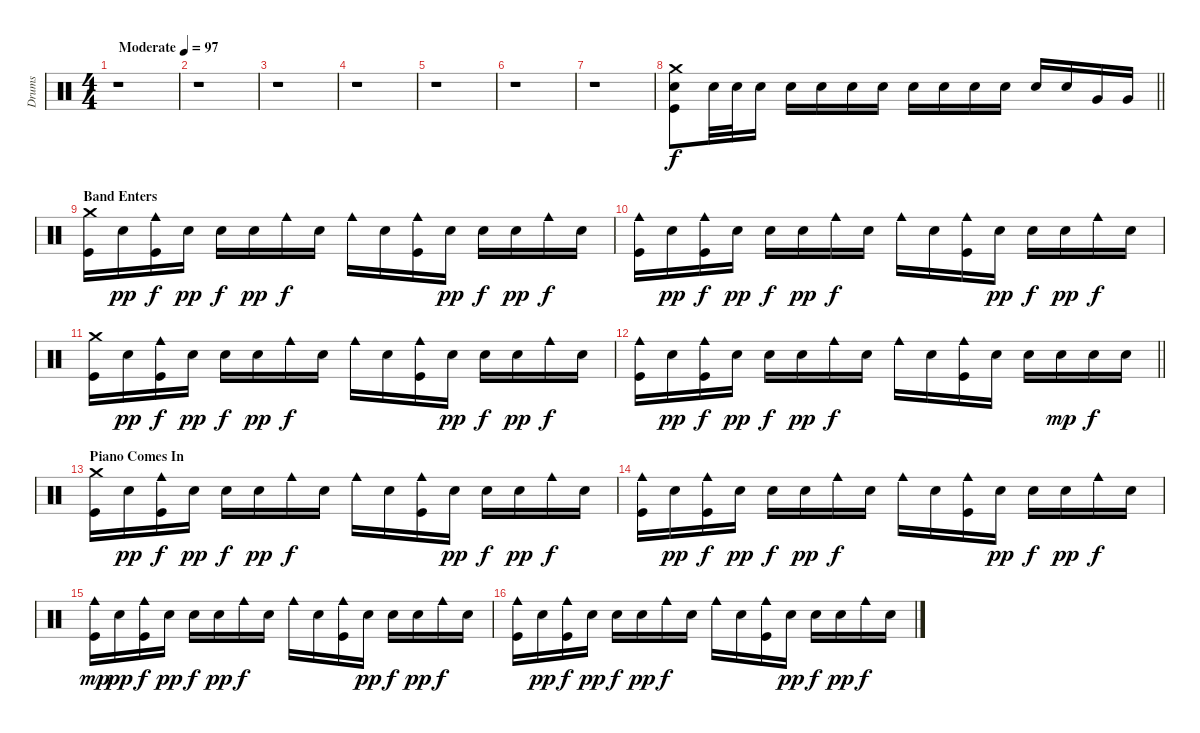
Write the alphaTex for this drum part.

\track ("Drums" "Drums") {instrument percussion}
\staff {score}
\articulation defaults
\ts (4 4)
\tempo (97 "Moderate")
\clef neutral
\ks c
r.1{dy f} |
r.1 |
r.1 |
r.1 |
r.1 |
r.1 |
r.1 |
\barLineRight lightlight
("Crash medium (hit)" "Electric Snare (hit)" "Kick (hit)").8 "Electric Snare (hit)".32 "Electric Snare (hit)".32 "Electric Snare (hit)".16 "Electric Snare (hit)".16 "Electric Snare (hit)".16 "Electric Snare (hit)".16 "Electric Snare (hit)".16 "Electric Snare (hit)".16 "Electric Snare (hit)".16 "Electric Snare (hit)".16 "Electric Snare (hit)".16 "Electric Snare (hit)".16 "Electric Snare (hit)".16 "Very Low Tom (hit)".16 "Very Low Tom (hit)".16 |
\section ("" "Band Enters")
("Crash medium (hit)" "Kick (hit)").16 "Electric Snare (hit)".16{dy pp} ("Cowbell medium (hit)" "Kick (hit)").16{dy f} "Electric Snare (hit)".16{dy pp} "Electric Snare (hit)".16{dy f} "Electric Snare (hit)".16{dy pp} "Cowbell medium (hit)".16{dy f} "Electric Snare (hit)".16 "Cowbell medium (hit)".16 "Electric Snare (hit)".16 ("Cowbell medium (hit)" "Kick (hit)").16 "Electric Snare (hit)".16{dy pp} "Electric Snare (hit)".16{dy f} "Electric Snare (hit)".16{dy pp} "Cowbell medium (hit)".16{dy f} "Electric Snare (hit)".16 |
("Cowbell medium (hit)" "Kick (hit)").16 "Electric Snare (hit)".16{dy pp} ("Cowbell medium (hit)" "Kick (hit)").16{dy f} "Electric Snare (hit)".16{dy pp} "Electric Snare (hit)".16{dy f} "Electric Snare (hit)".16{dy pp} "Cowbell medium (hit)".16{dy f} "Electric Snare (hit)".16 "Cowbell medium (hit)".16 "Electric Snare (hit)".16 ("Cowbell medium (hit)" "Kick (hit)").16 "Electric Snare (hit)".16{dy pp} "Electric Snare (hit)".16{dy f} "Electric Snare (hit)".16{dy pp} "Cowbell medium (hit)".16{dy f} "Electric Snare (hit)".16 |
("Crash medium (hit)" "Kick (hit)").16 "Electric Snare (hit)".16{dy pp} ("Cowbell medium (hit)" "Kick (hit)").16{dy f} "Electric Snare (hit)".16{dy pp} "Electric Snare (hit)".16{dy f} "Electric Snare (hit)".16{dy pp} "Cowbell medium (hit)".16{dy f} "Electric Snare (hit)".16 "Cowbell medium (hit)".16 "Electric Snare (hit)".16 ("Cowbell medium (hit)" "Kick (hit)").16 "Electric Snare (hit)".16{dy pp} "Electric Snare (hit)".16{dy f} "Electric Snare (hit)".16{dy pp} "Cowbell medium (hit)".16{dy f} "Electric Snare (hit)".16 |
\barLineRight lightlight
("Cowbell medium (hit)" "Kick (hit)").16 "Electric Snare (hit)".16{dy pp} ("Cowbell medium (hit)" "Kick (hit)").16{dy f} "Electric Snare (hit)".16{dy pp} "Electric Snare (hit)".16{dy f} "Electric Snare (hit)".16{dy pp} "Cowbell medium (hit)".16{dy f} "Electric Snare (hit)".16 "Cowbell medium (hit)".16 "Electric Snare (hit)".16 ("Cowbell medium (hit)" "Kick (hit)").16 "Electric Snare (hit)".16 "Electric Snare (hit)".16 "Electric Snare (hit)".16{dy mp} "Electric Snare (hit)".16{dy f} "Electric Snare (hit)".16 |
\section ("" "Piano Comes In")
("Crash medium (hit)" "Kick (hit)").16 "Electric Snare (hit)".16{dy pp} ("Cowbell medium (hit)" "Kick (hit)").16{dy f} "Electric Snare (hit)".16{dy pp} "Electric Snare (hit)".16{dy f} "Electric Snare (hit)".16{dy pp} "Cowbell medium (hit)".16{dy f} "Electric Snare (hit)".16 "Cowbell medium (hit)".16 "Electric Snare (hit)".16 ("Cowbell medium (hit)" "Kick (hit)").16 "Electric Snare (hit)".16{dy pp} "Electric Snare (hit)".16{dy f} "Electric Snare (hit)".16{dy pp} "Cowbell medium (hit)".16{dy f} "Electric Snare (hit)".16 |
("Cowbell medium (hit)" "Kick (hit)").16 "Electric Snare (hit)".16{dy pp} ("Cowbell medium (hit)" "Kick (hit)").16{dy f} "Electric Snare (hit)".16{dy pp} "Electric Snare (hit)".16{dy f} "Electric Snare (hit)".16{dy pp} "Cowbell medium (hit)".16{dy f} "Electric Snare (hit)".16 "Cowbell medium (hit)".16 "Electric Snare (hit)".16 ("Cowbell medium (hit)" "Kick (hit)").16 "Electric Snare (hit)".16{dy pp} "Electric Snare (hit)".16{dy f} "Electric Snare (hit)".16{dy pp} "Cowbell medium (hit)".16{dy f} "Electric Snare (hit)".16 |
("Cowbell medium (hit)" "Kick (hit)").16{dy mp} "Electric Snare (hit)".16{dy pp} ("Cowbell medium (hit)" "Kick (hit)").16{dy f} "Electric Snare (hit)".16{dy pp} "Electric Snare (hit)".16{dy f} "Electric Snare (hit)".16{dy pp} "Cowbell medium (hit)".16{dy f} "Electric Snare (hit)".16 "Cowbell medium (hit)".16 "Electric Snare (hit)".16 ("Cowbell medium (hit)" "Kick (hit)").16 "Electric Snare (hit)".16{dy pp} "Electric Snare (hit)".16{dy f} "Electric Snare (hit)".16{dy pp} "Cowbell medium (hit)".16{dy f} "Electric Snare (hit)".16 |
("Cowbell medium (hit)" "Kick (hit)").16 "Electric Snare (hit)".16{dy pp} ("Cowbell medium (hit)" "Kick (hit)").16{dy f} "Electric Snare (hit)".16{dy pp} "Electric Snare (hit)".16{dy f} "Electric Snare (hit)".16{dy pp} "Cowbell medium (hit)".16{dy f} "Electric Snare (hit)".16 "Cowbell medium (hit)".16 "Electric Snare (hit)".16 ("Cowbell medium (hit)" "Kick (hit)").16 "Electric Snare (hit)".16{dy pp} "Electric Snare (hit)".16{dy f} "Electric Snare (hit)".16{dy pp} "Cowbell medium (hit)".16{dy f} "Electric Snare (hit)".16
